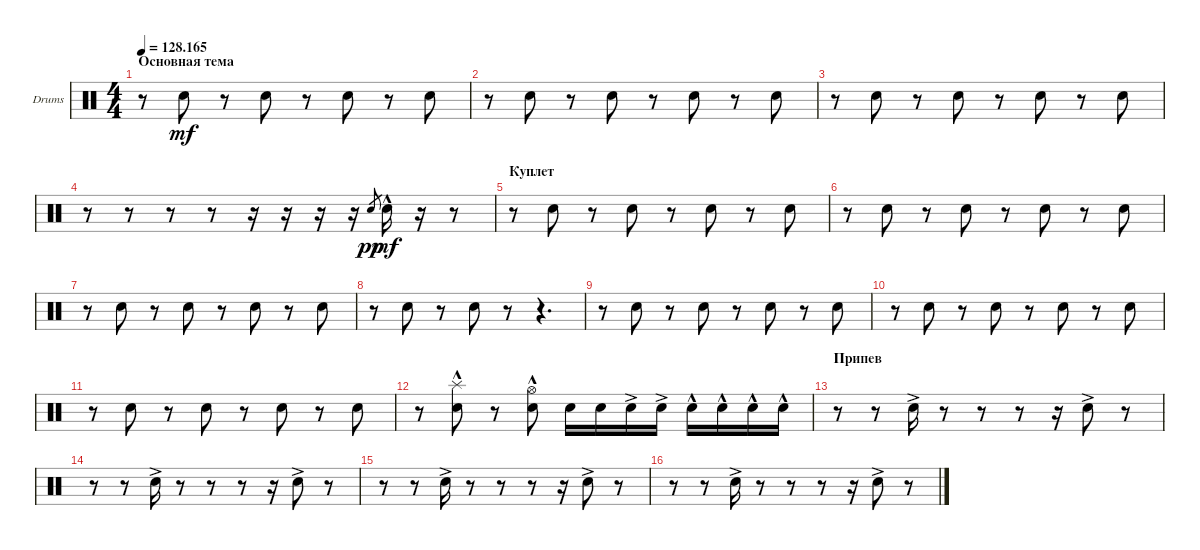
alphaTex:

\defaultSystemsLayout 4
\bracketExtendMode groupsimilarinstruments
\firstSystemTrackNameOrientation horizontal
\otherSystemsTrackNameOrientation horizontal
\track ("Drumkit" "Drums") {instrument percussion}
\staff {score}
\articulation defaults
\ts (4 4)
\section ("" "Основная тема")
\tempo
128.165
\accidentals auto
\clef neutral
\ottava regular
\simile none
\ks c
r.8{dy mf} "Snare (hit) 2".8 r.8 "Snare (hit) 2".8 r.8 "Snare (hit) 2".8 r.8 "Snare (hit) 2".8 |
r.8 "Snare (hit) 2".8 r.8 "Snare (hit) 2".8 r.8 "Snare (hit) 2".8 r.8 "Snare (hit) 2".8 |
r.8 "Snare (hit) 2".8 r.8 "Snare (hit) 2".8 r.8 "Snare (hit) 2".8 r.8 "Snare (hit) 2".8 |
r.8 r.8 r.8 r.8 r.16 r.16 r.16 r.16 "Snare (hit) 2".8{gr dy pp} "Snare (hit) 2"{hac}.16{dy mf} r.16 r.8 |
\section ("" "Куплет")
r.8 "Snare (hit) 2".8 r.8 "Snare (hit) 2".8 r.8 "Snare (hit) 2".8 r.8 "Snare (hit) 2".8 |
r.8 "Snare (hit) 2".8 r.8 "Snare (hit) 2".8 r.8 "Snare (hit) 2".8 r.8 "Snare (hit) 2".8 |
r.8 "Snare (hit) 2".8 r.8 "Snare (hit) 2".8 r.8 "Snare (hit) 2".8 r.8 "Snare (hit) 2".8 |
r.8 "Snare (hit) 2".8 r.8 "Snare (hit) 2".8 r.8 r.4{d} |
r.8 "Snare (hit) 2".8 r.8 "Snare (hit) 2".8 r.8 "Snare (hit) 2".8 r.8 "Snare (hit) 2".8 |
r.8 "Snare (hit) 2".8 r.8 "Snare (hit) 2".8 r.8 "Snare (hit) 2".8 r.8 "Snare (hit) 2".8 |
r.8 "Snare (hit) 2".8 r.8 "Snare (hit) 2".8 r.8 "Snare (hit) 2".8 r.8 "Snare (hit) 2".8 |
r.8 ("Snare (hit) 2" "Splash (hit)"{hac}).8 r.8 ("Snare (hit) 2" "Hi-Hat (open)"{hac}).8 "Snare (hit) 2".16 "Snare (hit) 2".16 "Snare (hit) 2"{ac}.16 "Snare (hit) 2"{ac}.16 "Snare (hit) 2"{hac}.16 "Snare (hit) 2"{hac}.16 "Snare (hit) 2"{hac}.16 "Snare (hit) 2"{hac}.16 |
\section ("" "Припев")
r.8 r.8 "Snare (hit) 2"{ac}.16 r.8 r.8 r.8 r.16 "Snare (hit) 2"{ac}.8 r.8 |
r.8 r.8 "Snare (hit) 2"{ac}.16 r.8 r.8 r.8 r.16 "Snare (hit) 2"{ac}.8 r.8 |
r.8 r.8 "Snare (hit) 2"{ac}.16 r.8 r.8 r.8 r.16 "Snare (hit) 2"{ac}.8 r.8 |
r.8 r.8 "Snare (hit) 2"{ac}.16 r.8 r.8 r.8 r.16 "Snare (hit) 2"{ac}.8 r.8
